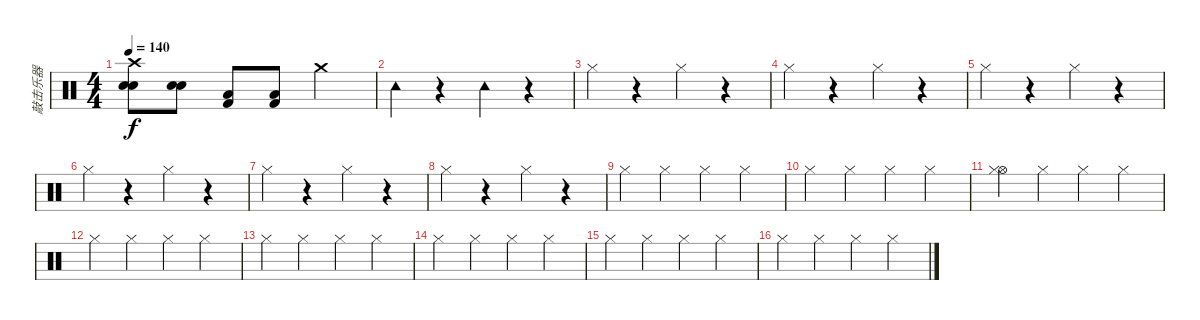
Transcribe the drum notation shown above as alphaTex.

\track ("敲击乐器" "敲击乐器") {instrument percussion bank 3}
\staff {score}
\articulation defaults
\ts (4 4)
\tempo 140
\clef neutral
\ks c
("Crash high (hit)" "Hand Clap (hit)" "Snare (hit) 2").8{dy f} ("Hand Clap (hit)" "Snare (hit) 2").8 ("Kick (hit) 2" "Low Floor Tom (hit)").8 ("Kick (hit) 2" "Low Floor Tom (hit)").8 "Crash medium (hit)".4 |
"Tambourine (hit)".4 r.4 "Tambourine (hit)".4 r.4 |
"Hi-Hat (closed)".4 r.4 "Hi-Hat (closed)".4 r.4 |
"Hi-Hat (closed)".4 r.4 "Hi-Hat (closed)".4 r.4 |
"Hi-Hat (closed)".4 r.4 "Hi-Hat (closed)".4 r.4 |
"Hi-Hat (closed)".4 r.4 "Hi-Hat (closed)".4 r.4 |
"Hi-Hat (closed)".4 r.4 "Hi-Hat (closed)".4 r.4 |
"Hi-Hat (closed)".4 r.4 "Hi-Hat (closed)".4 r.4 |
"Hi-Hat (closed)".4 "Hi-Hat (closed)".4 "Hi-Hat (closed)".4 "Hi-Hat (closed)".4 |
"Hi-Hat (closed)".4 "Hi-Hat (closed)".4 "Hi-Hat (closed)".4 "Hi-Hat (closed)".4 |
("Hi-Hat (open)" "Hi-Hat (closed)").4 "Hi-Hat (closed)".4 "Hi-Hat (closed)".4 "Hi-Hat (closed)".4 |
"Hi-Hat (closed)".4 "Hi-Hat (closed)".4 "Hi-Hat (closed)".4 "Hi-Hat (closed)".4 |
"Hi-Hat (closed)".4 "Hi-Hat (closed)".4 "Hi-Hat (closed)".4 "Hi-Hat (closed)".4 |
"Hi-Hat (closed)".4 "Hi-Hat (closed)".4 "Hi-Hat (closed)".4 "Hi-Hat (closed)".4 |
"Hi-Hat (closed)".4 "Hi-Hat (closed)".4 "Hi-Hat (closed)".4 "Hi-Hat (closed)".4 |
"Hi-Hat (closed)".4 "Hi-Hat (closed)".4 "Hi-Hat (closed)".4 "Hi-Hat (closed)".4
